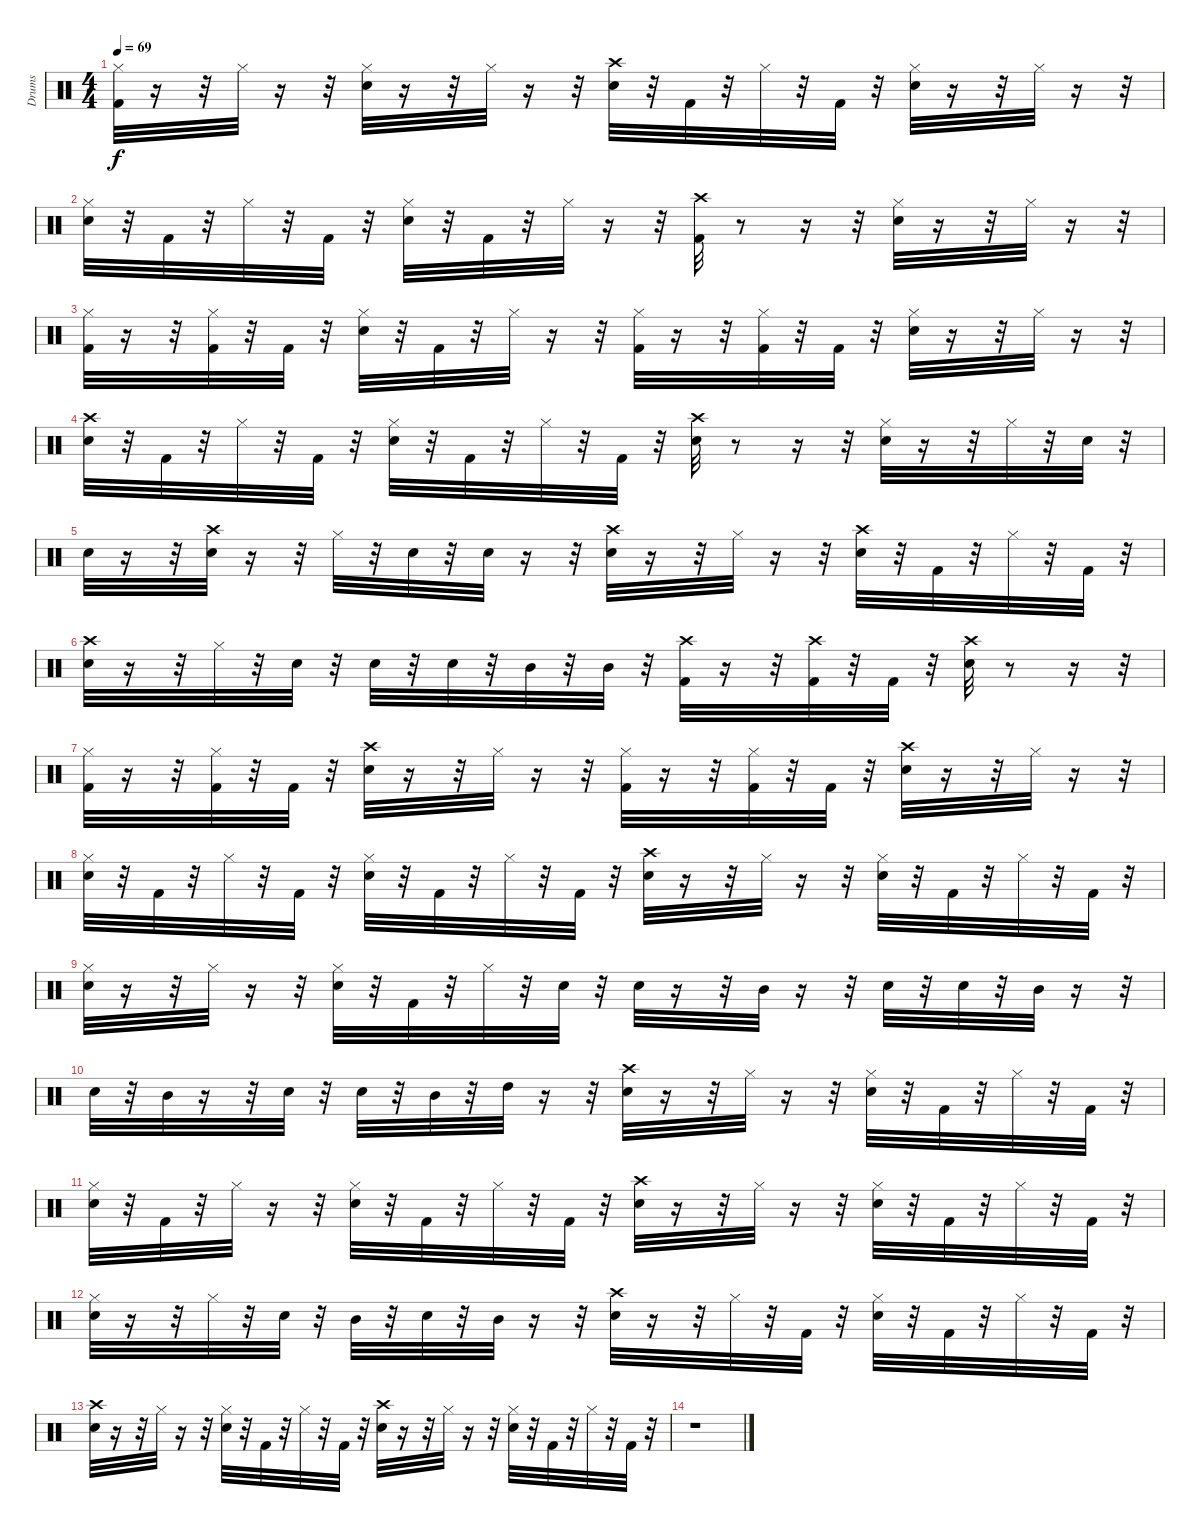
\track ("Drums" "Drums") {instrument percussion}
\staff {score}
\articulation defaults
\ts (4 4)
\tempo 69
\clef neutral
\ks c
("Hi-Hat (closed)" "Kick (hit) 2").32{dy f} r.16 r.32 "Hi-Hat (closed)".32 r.16 r.32 ("Snare (hit) 2" "Hi-Hat (closed)").32 r.16 r.32 "Hi-Hat (closed)".32 r.16 r.32 ("Crash high (hit)" "Snare (hit) 2").32 r.32 "Kick (hit) 2".32 r.32 "Hi-Hat (closed)".32 r.32 "Kick (hit) 2".32 r.32 ("Snare (hit) 2" "Hi-Hat (closed)").32 r.16 r.32 "Hi-Hat (closed)".32 r.16 r.32 |
("Snare (hit) 2" "Hi-Hat (closed)").32 r.32 "Kick (hit) 2".32 r.32 "Hi-Hat (closed)".32 r.32 "Kick (hit) 2".32 r.32 ("Hi-Hat (closed)" "Snare (hit) 2").32 r.32 "Kick (hit) 2".32 r.32 "Hi-Hat (closed)".32 r.16 r.32 ("Crash high (hit)" "Kick (hit) 2").32 r.8 r.16 r.32 ("Hi-Hat (closed)" "Snare (hit) 2").32 r.16 r.32 "Hi-Hat (closed)".32 r.16 r.32 |
("Hi-Hat (closed)" "Kick (hit) 2").32 r.16 r.32 ("Hi-Hat (closed)" "Kick (hit) 2").32 r.32 "Kick (hit) 2".32 r.32 ("Snare (hit) 2" "Hi-Hat (closed)").32 r.32 "Kick (hit) 2".32 r.32 "Hi-Hat (closed)".32 r.16 r.32 ("Hi-Hat (closed)" "Kick (hit) 2").32 r.16 r.32 ("Hi-Hat (closed)" "Kick (hit) 2").32 r.32 "Kick (hit) 2".32 r.32 ("Snare (hit) 2" "Hi-Hat (closed)").32 r.16 r.32 "Hi-Hat (closed)".32 r.16 r.32 |
("Snare (hit) 2" "Crash high (hit)").32 r.32 "Kick (hit) 2".32 r.32 "Hi-Hat (closed)".32 r.32 "Kick (hit) 2".32 r.32 ("Snare (hit) 2" "Hi-Hat (closed)").32 r.32 "Kick (hit) 2".32 r.32 "Hi-Hat (closed)".32 r.32 "Kick (hit) 2".32 r.32 ("Crash high (hit)" "Snare (hit) 2").32 r.8 r.16 r.32 ("Hi-Hat (closed)" "Snare (hit) 2").32 r.16 r.32 "Hi-Hat (closed)".32 r.32 "Snare (hit) 2".32 r.32 |
"Snare (hit) 2".32 r.16 r.32 ("Crash high (hit)" "Snare (hit) 2").32 r.16 r.32 "Hi-Hat (closed)".32 r.32 "Snare (hit) 2".32 r.32 "Snare (hit) 2".32 r.16 r.32 ("Crash high (hit)" "Snare (hit) 2").32 r.16 r.32 "Hi-Hat (closed)".32 r.16 r.32 ("Crash high (hit)" "Snare (hit) 2").32 r.32 "Kick (hit) 2".32 r.32 "Hi-Hat (closed)".32 r.32 "Kick (hit) 2".32 r.32 |
("Crash high (hit)" "Snare (hit) 2").32 r.16 r.32 "Hi-Hat (closed)".32 r.32 "Snare (hit) 2".32 r.32 "Snare (hit) 2".32 r.32 "Snare (hit) 2".32 r.32 "Mid Tom (hit)".32 r.32 "Mid Tom (hit)".32 r.32 ("Crash high (hit)" "Kick (hit) 2").32 r.16 r.32 ("Crash high (hit)" "Kick (hit) 2").32 r.32 "Kick (hit) 2".32 r.32 ("Crash high (hit)" "Snare (hit) 2").32 r.8 r.16 r.32 |
("Hi-Hat (closed)" "Kick (hit) 2").32 r.16 r.32 ("Hi-Hat (closed)" "Kick (hit) 2").32 r.32 "Kick (hit) 2".32 r.32 ("Crash high (hit)" "Snare (hit) 2").32 r.16 r.32 "Hi-Hat (closed)".32 r.16 r.32 ("Hi-Hat (closed)" "Kick (hit) 2").32 r.16 r.32 ("Hi-Hat (closed)" "Kick (hit) 2").32 r.32 "Kick (hit) 2".32 r.32 ("Crash high (hit)" "Snare (hit) 2").32 r.16 r.32 "Hi-Hat (closed)".32 r.16 r.32 |
("Snare (hit) 2" "Hi-Hat (closed)").32 r.32 "Kick (hit) 2".32 r.32 "Hi-Hat (closed)".32 r.32 "Kick (hit) 2".32 r.32 ("Snare (hit) 2" "Hi-Hat (closed)").32 r.32 "Kick (hit) 2".32 r.32 "Hi-Hat (closed)".32 r.32 "Kick (hit) 2".32 r.32 ("Crash high (hit)" "Snare (hit) 2").32 r.16 r.32 "Hi-Hat (closed)".32 r.16 r.32 ("Snare (hit) 2" "Hi-Hat (closed)").32 r.32 "Kick (hit) 2".32 r.32 "Hi-Hat (closed)".32 r.32 "Kick (hit) 2".32 r.32 |
("Hi-Hat (closed)" "Snare (hit) 2").32 r.16 r.32 "Hi-Hat (closed)".32 r.16 r.32 ("Hi-Hat (closed)" "Snare (hit) 2").32 r.32 "Kick (hit) 2".32 r.32 "Hi-Hat (closed)".32 r.32 "Snare (hit) 2".32 r.32 "Snare (hit) 2".32 r.16 r.32 "Mid Tom (hit)".32 r.16 r.32 "Snare (hit) 2".32 r.32 "Snare (hit) 2".32 r.32 "Mid Tom (hit)".32 r.16 r.32 |
"Snare (hit) 2".32 r.32 "Mid Tom (hit)".32 r.16 r.32 "Snare (hit) 2".32 r.32 "Snare (hit) 2".32 r.32 "Mid Tom (hit)".32 r.32 "High Tom (hit)".32 r.16 r.32 ("Crash high (hit)" "Snare (hit) 2").32 r.16 r.32 "Hi-Hat (closed)".32 r.16 r.32 ("Snare (hit) 2" "Hi-Hat (closed)").32 r.32 "Kick (hit) 2".32 r.32 "Hi-Hat (closed)".32 r.32 "Kick (hit) 2".32 r.32 |
("Hi-Hat (closed)" "Snare (hit) 2").32 r.32 "Kick (hit) 2".32 r.32 "Hi-Hat (closed)".32 r.16 r.32 ("Snare (hit) 2" "Hi-Hat (closed)").32 r.32 "Kick (hit) 2".32 r.32 "Hi-Hat (closed)".32 r.32 "Kick (hit) 2".32 r.32 ("Crash high (hit)" "Snare (hit) 2").32 r.16 r.32 "Hi-Hat (closed)".32 r.16 r.32 ("Snare (hit) 2" "Hi-Hat (closed)").32 r.32 "Kick (hit) 2".32 r.32 "Hi-Hat (closed)".32 r.32 "Kick (hit) 2".32 r.32 |
("Hi-Hat (closed)" "Snare (hit) 2").32 r.16 r.32 "Hi-Hat (closed)".32 r.32 "Snare (hit) 2".32 r.32 "Mid Tom (hit)".32 r.32 "Snare (hit) 2".32 r.32 "Mid Tom (hit)".32 r.16 r.32 ("Crash high (hit)" "Snare (hit) 2").32 r.16 r.32 "Hi-Hat (closed)".32 r.32 "Kick (hit) 2".32 r.32 ("Snare (hit) 2" "Hi-Hat (closed)").32 r.32 "Kick (hit) 2".32 r.32 "Hi-Hat (closed)".32 r.32 "Kick (hit) 2".32 r.32 |
("Crash high (hit)" "Snare (hit) 2").32 r.16 r.32 "Hi-Hat (closed)".32 r.16 r.32 ("Snare (hit) 2" "Hi-Hat (closed)").32 r.32 "Kick (hit) 2".32 r.32 "Hi-Hat (closed)".32 r.32 "Kick (hit) 2".32 r.32 ("Crash high (hit)" "Snare (hit) 2").32 r.16 r.32 "Hi-Hat (closed)".32 r.16 r.32 ("Snare (hit) 2" "Hi-Hat (closed)").32 r.32 "Kick (hit) 2".32 r.32 "Hi-Hat (closed)".32 r.32 "Kick (hit) 2".32 r.32 |
r.1
